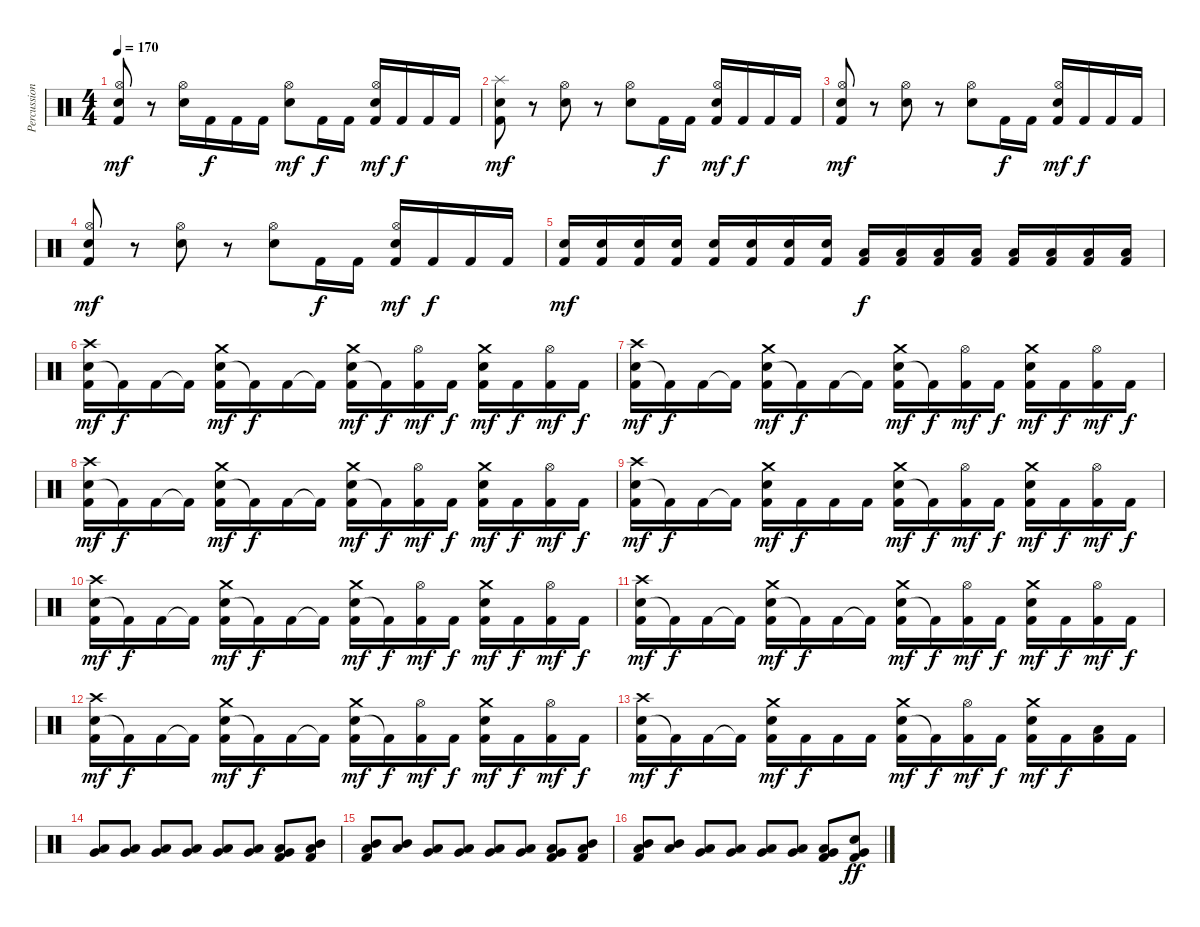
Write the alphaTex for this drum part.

\track ("Percussion" "Percussion") {instrument percussion}
\staff {score}
\articulation defaults
\ts (4 4)
\tempo 170
\clef neutral
\ks c
("Snare (hit) 2" "Hi-Hat (open)" "Kick (hit) 2").8{dy mf} r.8 ("Snare (hit) 2" "Hi-Hat (open)").16 "Kick (hit) 2".16{dy f} "Kick (hit) 2".16 "Kick (hit) 2".16 ("Snare (hit) 2" "Hi-Hat (open)").8{dy mf} "Kick (hit) 2".16{dy f} "Kick (hit) 2".16 ("Snare (hit) 2" "Hi-Hat (open)" "Kick (hit) 2").16{dy mf} "Kick (hit) 2".16{dy f} "Kick (hit) 2".16 "Kick (hit) 2".16 |
("Snare (hit) 2" "Splash (hit)" "Kick (hit) 2").8{dy mf} r.8 ("Snare (hit) 2" "Hi-Hat (open)").8 r.8 ("Snare (hit) 2" "Hi-Hat (open)").8 "Kick (hit) 2".16{dy f} "Kick (hit) 2".16 ("Snare (hit) 2" "Hi-Hat (open)" "Kick (hit) 2").16{dy mf} "Kick (hit) 2".16{dy f} "Kick (hit) 2".16 "Kick (hit) 2".16 |
("Snare (hit) 2" "Hi-Hat (open)" "Kick (hit) 2").8{dy mf} r.8 ("Snare (hit) 2" "Hi-Hat (open)").8 r.8 ("Snare (hit) 2" "Hi-Hat (open)").8 "Kick (hit) 2".16{dy f} "Kick (hit) 2".16 ("Snare (hit) 2" "Hi-Hat (open)" "Kick (hit) 2").16{dy mf} "Kick (hit) 2".16{dy f} "Kick (hit) 2".16 "Kick (hit) 2".16 |
("Snare (hit) 2" "Hi-Hat (open)" "Kick (hit) 2").8{dy mf} r.8 ("Snare (hit) 2" "Hi-Hat (open)").8 r.8 ("Snare (hit) 2" "Hi-Hat (open)").8 "Kick (hit) 2".16{dy f} "Kick (hit) 2".16 ("Snare (hit) 2" "Hi-Hat (open)" "Kick (hit) 2").16{dy mf} "Kick (hit) 2".16{dy f} "Kick (hit) 2".16 "Kick (hit) 2".16 |
("Snare (hit) 2" "Kick (hit) 2").16{dy mf} ("Snare (hit) 2" "Kick (hit) 2").16 ("Snare (hit) 2" "Kick (hit) 2").16 ("Snare (hit) 2" "Kick (hit) 2").16 ("Snare (hit) 2" "Kick (hit) 2").16 ("Snare (hit) 2" "Kick (hit) 2").16 ("Snare (hit) 2" "Kick (hit) 2").16 ("Snare (hit) 2" "Kick (hit) 2").16 ("Low Tom (hit)" "Kick (hit) 2").16{dy f} ("Low Tom (hit)" "Kick (hit) 2").16 ("Low Tom (hit)" "Kick (hit) 2").16 ("Low Tom (hit)" "Kick (hit) 2").16 ("Low Tom (hit)" "Kick (hit) 2").16 ("Low Tom (hit)" "Kick (hit) 2").16 ("Low Tom (hit)" "Kick (hit) 2").16 ("Low Tom (hit)" "Kick (hit) 2").16 |
("Snare (hit) 2" "Crash high (hit)" "Kick (hit) 2").16{dy mf} "Kick (hit) 2"{t}.16{dy f} "Kick (hit) 2".16 "Kick (hit) 2"{t}.16 ("Snare (hit) 2" "Crash medium (hit)" "Kick (hit) 2").16{dy mf} "Kick (hit) 2"{t}.16{dy f} "Kick (hit) 2".16 "Kick (hit) 2"{t}.16 ("Snare (hit) 2" "Crash medium (hit)" "Kick (hit) 2").16{dy mf} "Kick (hit) 2"{t}.16{dy f} ("Hi-Hat (open)" "Kick (hit) 2").16{dy mf} "Kick (hit) 2".16{dy f} ("Snare (hit) 2" "Crash medium (hit)" "Kick (hit) 2").16{dy mf} "Kick (hit) 2".16{dy f} ("Hi-Hat (open)" "Kick (hit) 2").16{dy mf} "Kick (hit) 2".16{dy f} |
("Snare (hit) 2" "Crash high (hit)" "Kick (hit) 2").16{dy mf} "Kick (hit) 2"{t}.16{dy f} "Kick (hit) 2".16 "Kick (hit) 2"{t}.16 ("Snare (hit) 2" "Crash medium (hit)" "Kick (hit) 2").16{dy mf} "Kick (hit) 2"{t}.16{dy f} "Kick (hit) 2".16 "Kick (hit) 2"{t}.16 ("Snare (hit) 2" "Crash medium (hit)" "Kick (hit) 2").16{dy mf} "Kick (hit) 2"{t}.16{dy f} ("Hi-Hat (open)" "Kick (hit) 2").16{dy mf} "Kick (hit) 2".16{dy f} ("Snare (hit) 2" "Crash medium (hit)" "Kick (hit) 2").16{dy mf} "Kick (hit) 2".16{dy f} ("Hi-Hat (open)" "Kick (hit) 2").16{dy mf} "Kick (hit) 2".16{dy f} |
("Snare (hit) 2" "Crash high (hit)" "Kick (hit) 2").16{dy mf} "Kick (hit) 2"{t}.16{dy f} "Kick (hit) 2".16 "Kick (hit) 2"{t}.16 ("Snare (hit) 2" "Crash medium (hit)" "Kick (hit) 2").16{dy mf} "Kick (hit) 2"{t}.16{dy f} "Kick (hit) 2".16 "Kick (hit) 2"{t}.16 ("Snare (hit) 2" "Crash medium (hit)" "Kick (hit) 2").16{dy mf} "Kick (hit) 2"{t}.16{dy f} ("Hi-Hat (open)" "Kick (hit) 2").16{dy mf} "Kick (hit) 2".16{dy f} ("Snare (hit) 2" "Crash medium (hit)" "Kick (hit) 2").16{dy mf} "Kick (hit) 2".16{dy f} ("Hi-Hat (open)" "Kick (hit) 2").16{dy mf} "Kick (hit) 2".16{dy f} |
("Snare (hit) 2" "Crash high (hit)" "Kick (hit) 2").16{dy mf} "Kick (hit) 2"{t}.16{dy f} "Kick (hit) 2".16 "Kick (hit) 2"{t}.16 ("Snare (hit) 2" "Crash medium (hit)" "Kick (hit) 2").16{dy mf} "Kick (hit) 2".16{dy f} "Kick (hit) 2".16 "Kick (hit) 2".16 ("Snare (hit) 2" "Crash medium (hit)" "Kick (hit) 2").16{dy mf} "Kick (hit) 2"{t}.16{dy f} ("Hi-Hat (open)" "Kick (hit) 2").16{dy mf} "Kick (hit) 2".16{dy f} ("Snare (hit) 2" "Crash medium (hit)" "Kick (hit) 2").16{dy mf} "Kick (hit) 2".16{dy f} ("Hi-Hat (open)" "Kick (hit) 2").16{dy mf} "Kick (hit) 2".16{dy f} |
("Snare (hit) 2" "Crash high (hit)" "Kick (hit) 2").16{dy mf} "Kick (hit) 2"{t}.16{dy f} "Kick (hit) 2".16 "Kick (hit) 2"{t}.16 ("Snare (hit) 2" "Crash medium (hit)" "Kick (hit) 2").16{dy mf} "Kick (hit) 2"{t}.16{dy f} "Kick (hit) 2".16 "Kick (hit) 2"{t}.16 ("Snare (hit) 2" "Crash medium (hit)" "Kick (hit) 2").16{dy mf} "Kick (hit) 2"{t}.16{dy f} ("Hi-Hat (open)" "Kick (hit) 2").16{dy mf} "Kick (hit) 2".16{dy f} ("Snare (hit) 2" "Crash medium (hit)" "Kick (hit) 2").16{dy mf} "Kick (hit) 2".16{dy f} ("Hi-Hat (open)" "Kick (hit) 2").16{dy mf} "Kick (hit) 2".16{dy f} |
("Snare (hit) 2" "Crash high (hit)" "Kick (hit) 2").16{dy mf} "Kick (hit) 2"{t}.16{dy f} "Kick (hit) 2".16 "Kick (hit) 2"{t}.16 ("Snare (hit) 2" "Crash medium (hit)" "Kick (hit) 2").16{dy mf} "Kick (hit) 2"{t}.16{dy f} "Kick (hit) 2".16 "Kick (hit) 2"{t}.16 ("Snare (hit) 2" "Crash medium (hit)" "Kick (hit) 2").16{dy mf} "Kick (hit) 2"{t}.16{dy f} ("Hi-Hat (open)" "Kick (hit) 2").16{dy mf} "Kick (hit) 2".16{dy f} ("Snare (hit) 2" "Crash medium (hit)" "Kick (hit) 2").16{dy mf} "Kick (hit) 2".16{dy f} ("Hi-Hat (open)" "Kick (hit) 2").16{dy mf} "Kick (hit) 2".16{dy f} |
("Snare (hit) 2" "Crash high (hit)" "Kick (hit) 2").16{dy mf} "Kick (hit) 2"{t}.16{dy f} "Kick (hit) 2".16 "Kick (hit) 2"{t}.16 ("Snare (hit) 2" "Crash medium (hit)" "Kick (hit) 2").16{dy mf} "Kick (hit) 2"{t}.16{dy f} "Kick (hit) 2".16 "Kick (hit) 2"{t}.16 ("Snare (hit) 2" "Crash medium (hit)" "Kick (hit) 2").16{dy mf} "Kick (hit) 2"{t}.16{dy f} ("Hi-Hat (open)" "Kick (hit) 2").16{dy mf} "Kick (hit) 2".16{dy f} ("Snare (hit) 2" "Crash medium (hit)" "Kick (hit) 2").16{dy mf} "Kick (hit) 2".16{dy f} ("Hi-Hat (open)" "Kick (hit) 2").16{dy mf} "Kick (hit) 2".16{dy f} |
("Snare (hit) 2" "Crash high (hit)" "Kick (hit) 2").16{dy mf} "Kick (hit) 2"{t}.16{dy f} "Kick (hit) 2".16 "Kick (hit) 2"{t}.16 ("Snare (hit) 2" "Crash medium (hit)" "Kick (hit) 2").16{dy mf} "Kick (hit) 2".16{dy f} "Kick (hit) 2".16 "Kick (hit) 2".16 ("Snare (hit) 2" "Crash medium (hit)" "Kick (hit) 2").16{dy mf} "Kick (hit) 2"{t}.16{dy f} ("Hi-Hat (open)" "Kick (hit) 2").16{dy mf} "Kick (hit) 2".16{dy f} ("Snare (hit) 2" "Crash medium (hit)" "Kick (hit) 2").16{dy mf} "Kick (hit) 2".16{dy f} ("Low Tom (hit)" "Kick (hit) 2").16 "Kick (hit) 2".16 |
("Very Low Tom (hit)" "Low Tom (hit)").8 ("Very Low Tom (hit)" "Low Tom (hit)").8 ("Very Low Tom (hit)" "Low Tom (hit)").8 ("Very Low Tom (hit)" "Low Tom (hit)").8 ("Very Low Tom (hit)" "Low Tom (hit)").8 ("Very Low Tom (hit)" "Low Tom (hit)").8 ("Very Low Tom (hit)" "Low Tom (hit)" "Kick (hit) 2").8 ("Mid Tom (hit)" "Low Tom (hit)" "Kick (hit) 2").8 |
("Mid Tom (hit)" "Low Tom (hit)" "Kick (hit) 2").8 ("Mid Tom (hit)" "Low Tom (hit)").8 ("Very Low Tom (hit)" "Low Tom (hit)").8 ("Very Low Tom (hit)" "Low Tom (hit)").8 ("Very Low Tom (hit)" "Low Tom (hit)").8 ("Very Low Tom (hit)" "Low Tom (hit)").8 ("Very Low Tom (hit)" "Low Tom (hit)" "Kick (hit) 2").8 ("Mid Tom (hit)" "Low Tom (hit)" "Kick (hit) 2").8 |
("Mid Tom (hit)" "Low Tom (hit)" "Kick (hit) 2").8 ("Mid Tom (hit)" "Low Tom (hit)").8 ("Very Low Tom (hit)" "Low Tom (hit)").8 ("Very Low Tom (hit)" "Low Tom (hit)").8 ("Very Low Tom (hit)" "Low Tom (hit)").8 ("Very Low Tom (hit)" "Low Tom (hit)").8 ("Very Low Tom (hit)" "Low Tom (hit)" "Kick (hit) 2").8 ("Snare (hit) 2" "Very Low Tom (hit)" "Kick (hit) 2").8{dy ff}
